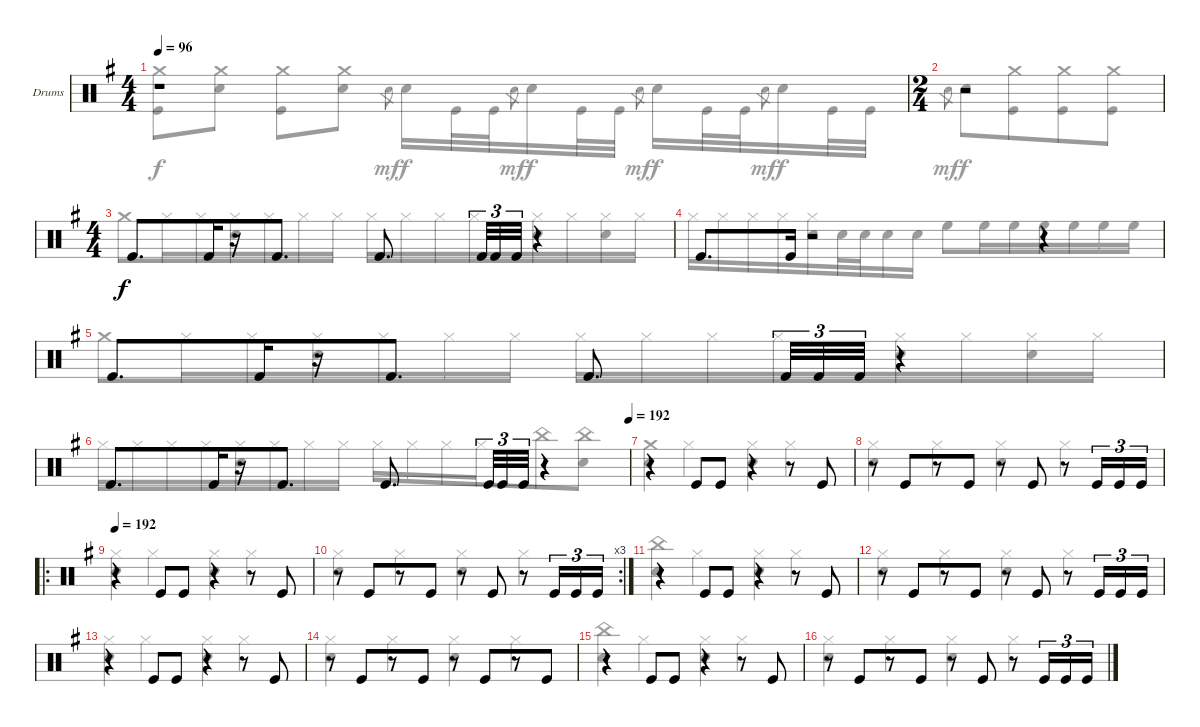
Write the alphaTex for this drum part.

\bracketExtendMode groupsimilarinstruments
\firstSystemTrackNameOrientation horizontal
\otherSystemsTrackNameOrientation horizontal
\track ("Drumkit" "Drums") {instrument percussion}
\staff {score}
\articulation defaults
\voice
\ts (4 4)
\tempo 96
\clef neutral
\scale
1.04288
\ks g
r.1{dy f} |
\ts (2 4)
\beaming (8 4 4)
\scale
0.957125 r.2 |
\ts (4 4)
\beaming (8 4 4)
\scale
1.07314 "Kick (hit)".8{d} "Kick (hit)".16 r.16 "Kick (hit)".8{d} "Kick (hit)".8{d} "Kick (hit)".32{tu (3 2)} "Kick (hit)".32{tu (3 2)} "Kick (hit)".32{tu (3 2)} r.4 |
\scale
0.92686 "Kick (hit)".8{d} "Kick (hit)".16 r.2 r.4 |
\scale
1.04288 "Kick (hit)".8{d} "Kick (hit)".16 r.16 "Kick (hit)".8{d} "Kick (hit)".8{d} "Kick (hit)".32{tu (3 2)} "Kick (hit)".32{tu (3 2)} "Kick (hit)".32{tu (3 2)} r.4 |
\tempo (192 1)
\scale
0.957125 "Kick (hit)".8{d} "Kick (hit)".16 r.16 "Kick (hit)".8{d} "Kick (hit)".8{d} "Kick (hit)".32{tu (3 2)} "Kick (hit)".32{tu (3 2)} "Kick (hit)".32{tu (3 2)} r.4 |
\scale
1.04288 r.4 "Kick (hit)".8 "Kick (hit)".8 r.4 r.8 "Kick (hit)".8 |
\scale
0.957125 r.8 "Kick (hit)".8 r.8 "Kick (hit)".8 r.8 "Kick (hit)".8 r.8 "Kick (hit)".16{tu (3 2)} "Kick (hit)".16{tu (3 2)} "Kick (hit)".16{tu (3 2)} |
\ro
\tempo 192
\scale
1.04288 r.4 "Kick (hit)".8 "Kick (hit)".8 r.4 r.8 "Kick (hit)".8 |
\rc 3
\scale
0.957125 r.8 "Kick (hit)".8 r.8 "Kick (hit)".8 r.8 "Kick (hit)".8 r.8 "Kick (hit)".16{tu (3 2)} "Kick (hit)".16{tu (3 2)} "Kick (hit)".16{tu (3 2)} |
\scale
1.04288 r.4 "Kick (hit)".8 "Kick (hit)".8 r.4 r.8 "Kick (hit)".8 |
\scale
0.957125 r.8 "Kick (hit)".8 r.8 "Kick (hit)".8 r.8 "Kick (hit)".8 r.8 "Kick (hit)".16{tu (3 2)} "Kick (hit)".16{tu (3 2)} "Kick (hit)".16{tu (3 2)} |
\scale
1.04288 r.4 "Kick (hit)".8 "Kick (hit)".8 r.4 r.8 "Kick (hit)".8 |
\scale
0.957125 r.8 "Kick (hit)".8 r.8 "Kick (hit)".8 r.8 "Kick (hit)".8 r.8 "Kick (hit)".8 |
\scale
1.04288 r.4 "Kick (hit)".8 "Kick (hit)".8 r.4 r.8 "Kick (hit)".8 |
\scale
0.957125 r.8 "Kick (hit)".8 r.8 "Kick (hit)".8 r.8 "Kick (hit)".8 r.8 "Kick (hit)".16{tu (3 2)} "Kick (hit)".16{tu (3 2)} "Kick (hit)".16{tu (3 2)}
\voice
\clef neutral
\ottava regular
\simile none
\scale
1.04288
\ks g
("Crash medium (hit)" "Kick (hit)").8{dy f} ("Crash medium (hit)" "Snare (hit) 2").8 ("Crash medium (hit)" "Kick (hit)").8 ("Crash medium (hit)" "Snare (hit) 2").8 "Snare (hit) 2".8{gr dy mf} "Snare (hit) 2".16{dy f} "Kick (hit)".32 "Kick (hit)".32 "Snare (hit) 2".8{gr dy mf} "Snare (hit) 2".16{dy f} "Kick (hit)".32 "Kick (hit)".32 "Snare (hit) 2".8{gr dy mf} "Snare (hit) 2".16{dy f} "Kick (hit)".32 "Kick (hit)".32 "Snare (hit) 2".8{gr dy mf} "Snare (hit) 2".16{dy f} "Kick (hit)".32 "Kick (hit)".32 |
\scale
0.957125 "Snare (hit) 2".8{gr dy mf} "Snare (hit) 2".8{dy f} ("Crash medium (hit)" "Kick (hit)").8 ("Crash medium (hit)" "Kick (hit)").8 ("Crash medium (hit)" "Kick (hit)").8 |
\scale
1.07314 "Crash medium (hit)".8 "Hi-Hat (closed)".16 "Hi-Hat (closed)".16 ("Hi-Hat (closed)" "Snare (hit) 2").16 "Hi-Hat (closed)".16 "Hi-Hat (closed)".16 "Hi-Hat (closed)".16 "Hi-Hat (closed)".16 "Hi-Hat (closed)".16 "Hi-Hat (closed)".16 "Hi-Hat (closed)".16 ("Hi-Hat (closed)" "Snare (hit) 2").16 "Hi-Hat (closed)".16 ("Hi-Hat (closed)" "Snare (hit) 2").16 "Hi-Hat (closed)".16 |
\scale
0.92686 "Hi-Hat (closed)".16 "Hi-Hat (closed)".16 "Hi-Hat (closed)".16 "Hi-Hat (closed)".16 ("Hi-Hat (closed)" "Snare (hit) 2").16 "Snare (hit) 2".32 "Snare (hit) 2".32 "Snare (hit) 2".16 "Snare (hit) 2".16 "High Floor Tom (hit)".8 "High Floor Tom (hit)".16 "High Floor Tom (hit)".16 "High Floor Tom (hit)".16 "High Floor Tom (hit)".16 "High Floor Tom (hit)".16 "High Floor Tom (hit)".16 |
\scale
1.04288 "Crash medium (hit)".8 "Hi-Hat (closed)".16 "Hi-Hat (closed)".16 ("Hi-Hat (closed)" "Snare (hit) 2").16 "Hi-Hat (closed)".16 "Hi-Hat (closed)".16 "Hi-Hat (closed)".16 "Hi-Hat (closed)".16 "Hi-Hat (closed)".16 "Hi-Hat (closed)".16 "Hi-Hat (closed)".16 ("Hi-Hat (closed)" "Snare (hit) 2").16 "Hi-Hat (closed)".16 ("Hi-Hat (closed)" "Snare (hit) 2").16 "Hi-Hat (closed)".16 |
\scale
0.957125 "Hi-Hat (closed)".16 "Hi-Hat (closed)".16 "Hi-Hat (closed)".16 "Hi-Hat (closed)".16 ("Hi-Hat (closed)" "Snare (hit) 2").16 "Hi-Hat (closed)".16 "Hi-Hat (closed)".16 "Hi-Hat (closed)".16 "Hi-Hat (closed)".16 "Hi-Hat (closed)".16 "Hi-Hat (closed)".16 "Hi-Hat (closed)".16 "China (hit)".8 ("China (hit)" "Snare (hit) 2").8 |
\scale
1.04288 ("Crash medium (hit)" "Snare (hit) 2").4 "Hi-Hat (closed)".4 ("Hi-Hat (closed)" "Snare (hit) 2").4 "Hi-Hat (closed)".4 |
\scale
0.957125 ("Hi-Hat (closed)" "Snare (hit) 2").4 "Hi-Hat (closed)".4 ("Hi-Hat (closed)" "Snare (hit) 2").4 "Hi-Hat (closed)".4 |
\scale
1.04288 ("Hi-Hat (closed)" "Snare (hit) 2").4 "Hi-Hat (closed)".4 ("Hi-Hat (closed)" "Snare (hit) 2").4 "Hi-Hat (closed)".4 |
\scale
0.957125 ("Hi-Hat (closed)" "Snare (hit) 2").4 "Hi-Hat (closed)".4 ("Hi-Hat (closed)" "Snare (hit) 2").4 "Hi-Hat (closed)".4 |
\scale
1.04288 ("China (hit)" "Snare (hit) 2").4 "Hi-Hat (closed)".4 ("Hi-Hat (closed)" "Snare (hit) 2").4 "Hi-Hat (closed)".4 |
\scale
0.957125 ("Hi-Hat (closed)" "Snare (hit) 2").4 "Hi-Hat (closed)".4 ("Hi-Hat (closed)" "Snare (hit) 2").4 "Hi-Hat (closed)".4 |
\scale
1.04288 ("Hi-Hat (closed)" "Snare (hit) 2").4 "Hi-Hat (closed)".4 ("Hi-Hat (closed)" "Snare (hit) 2").4 "Hi-Hat (closed)".4 |
\scale
0.957125 ("Hi-Hat (closed)" "Snare (hit) 2").4 "Hi-Hat (closed)".4 ("Hi-Hat (closed)" "Snare (hit) 2").4 "Hi-Hat (closed)".4 |
\scale
1.04288 ("China (hit)" "Snare (hit) 2").4 "Hi-Hat (closed)".4 ("Hi-Hat (closed)" "Snare (hit) 2").4 "Hi-Hat (closed)".4 |
\scale
0.957125 ("Hi-Hat (closed)" "Snare (hit) 2").4 "Hi-Hat (closed)".4 ("Hi-Hat (closed)" "Snare (hit) 2").4 "Hi-Hat (closed)".4
